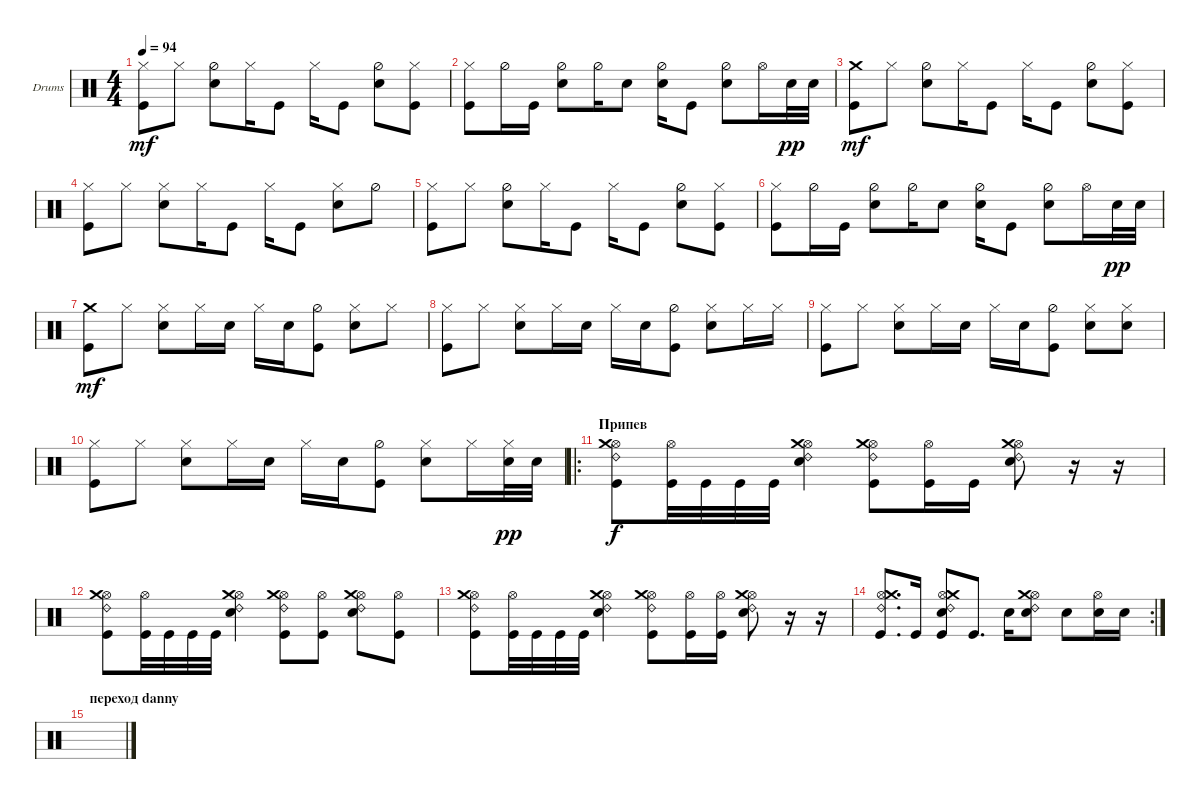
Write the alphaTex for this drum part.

\defaultSystemsLayout 4
\bracketExtendMode groupsimilarinstruments
\firstSystemTrackNameOrientation horizontal
\otherSystemsTrackNameOrientation horizontal
\track ("Drumkit" "Drums") {instrument percussion}
\staff {score}
\articulation defaults
\ts (4 4)
\tempo 94
\clef neutral
\ks c
("Kick (hit)" "Hi-Hat (closed)").8{dy mf} "Hi-Hat (closed)".8 ("Snare (hit) 2" "Hi-Hat (half)").8 "Hi-Hat (closed)".16 "Kick (hit)".8 "Hi-Hat (closed)".16 "Kick (hit)".8 ("Snare (hit) 2" "Hi-Hat (half)").8 ("Kick (hit)" "Hi-Hat (closed)").8 |
("Kick (hit)" "Hi-Hat (closed)").8 "Hi-Hat (half)".16 "Kick (hit)".16 ("Snare (hit) 2" "Hi-Hat (half)").8 "Hi-Hat (half)".16 "Snare (hit) 2".8 ("Snare (hit) 2" "Hi-Hat (half)").16 "Kick (hit)".8 ("Snare (hit) 2" "Hi-Hat (half)").8 "Hi-Hat (open)".16 "Snare (hit) 2".32{dy pp} "Snare (hit) 2".32 |
("Kick (hit)" "Crash medium (hit)").8{dy mf} "Hi-Hat (closed)".8 ("Snare (hit) 2" "Hi-Hat (half)").8 "Hi-Hat (closed)".16 "Kick (hit)".8 "Hi-Hat (closed)".16 "Kick (hit)".8 ("Snare (hit) 2" "Hi-Hat (half)").8 ("Kick (hit)" "Hi-Hat (closed)").8 |
("Kick (hit)" "Hi-Hat (closed)").8 "Hi-Hat (closed)".8 ("Snare (hit) 2" "Hi-Hat (closed)").8 "Hi-Hat (closed)".16 "Kick (hit)".8 "Hi-Hat (closed)".16 "Kick (hit)".8 ("Snare (hit) 2" "Hi-Hat (closed)").8 "Hi-Hat (half)".8 |
("Kick (hit)" "Hi-Hat (closed)").8 "Hi-Hat (closed)".8 ("Snare (hit) 2" "Hi-Hat (half)").8 "Hi-Hat (closed)".16 "Kick (hit)".8 "Hi-Hat (closed)".16 "Kick (hit)".8 ("Snare (hit) 2" "Hi-Hat (half)").8 ("Kick (hit)" "Hi-Hat (closed)").8 |
("Kick (hit)" "Hi-Hat (closed)").8 "Hi-Hat (half)".16 "Kick (hit)".16 ("Snare (hit) 2" "Hi-Hat (half)").8 "Hi-Hat (half)".16 "Snare (hit) 2".8 ("Snare (hit) 2" "Hi-Hat (half)").16 "Kick (hit)".8 ("Snare (hit) 2" "Hi-Hat (half)").8 "Hi-Hat (open)".16 "Snare (hit) 2".32{dy pp} "Snare (hit) 2".32 |
("Kick (hit)" "Crash medium (hit)").8{dy mf} "Hi-Hat (closed)".8 ("Snare (hit) 2" "Hi-Hat (closed)").8 "Hi-Hat (closed)".16 "Snare (hit) 2".16 "Hi-Hat (closed)".16 "Snare (hit) 2".16 ("Kick (hit)" "Hi-Hat (half)").8 ("Snare (hit) 2" "Hi-Hat (closed)").8 "Hi-Hat (closed)".8 |
("Kick (hit)" "Hi-Hat (closed)").8 "Hi-Hat (closed)".8 ("Snare (hit) 2" "Hi-Hat (closed)").8 "Hi-Hat (closed)".16 "Snare (hit) 2".16 "Hi-Hat (closed)".16 "Snare (hit) 2".16 ("Kick (hit)" "Hi-Hat (half)").8 ("Snare (hit) 2" "Hi-Hat (closed)").8 "Hi-Hat (closed)".16 "Hi-Hat (closed)".16 |
("Kick (hit)" "Hi-Hat (closed)").8 "Hi-Hat (closed)".8 ("Snare (hit) 2" "Hi-Hat (closed)").8 "Hi-Hat (closed)".16 "Snare (hit) 2".16 "Hi-Hat (closed)".16 "Snare (hit) 2".16 ("Kick (hit)" "Hi-Hat (half)").8 ("Snare (hit) 2" "Hi-Hat (closed)").8 ("Hi-Hat (closed)" "Snare (hit) 2").8 |
("Kick (hit)" "Hi-Hat (closed)").8 "Hi-Hat (closed)".8 ("Snare (hit) 2" "Hi-Hat (closed)").8 "Hi-Hat (closed)".16 "Snare (hit) 2".16 "Hi-Hat (closed)".16 "Snare (hit) 2".16 ("Kick (hit)" "Hi-Hat (half)").8 ("Snare (hit) 2" "Hi-Hat (closed)").8 "Hi-Hat (closed)".16 ("Hi-Hat (closed)" "Snare (hit) 2").32{dy pp} "Snare (hit) 2".32 |
\ro
\section ("" "Припев")
("Kick (hit)" "Hi-Hat (open)" "Crash medium (hit)" "Ride (bell) 2").8{dy f} ("Kick (hit)" "Hi-Hat (open)").32 "Kick (hit)".32 "Kick (hit)".32 "Kick (hit)".32 ("Snare (hit) 2" "Ride (bell) 2" "Hi-Hat (open)" "Crash medium (hit)").4 ("Kick (hit)" "Ride (bell) 2" "Hi-Hat (open)" "Crash medium (hit)").8 ("Kick (hit)" "Hi-Hat (open)").16 "Kick (hit)".16 ("Snare (hit) 2" "Ride (bell) 2" "Hi-Hat (open)" "Crash medium (hit)").8 r.16 r.16 |
("Kick (hit)" "Hi-Hat (open)" "Crash medium (hit)" "Ride (bell) 2").8 ("Kick (hit)" "Hi-Hat (open)").32 "Kick (hit)".32 "Kick (hit)".32 "Kick (hit)".32 ("Snare (hit) 2" "Ride (bell) 2" "Hi-Hat (open)" "Crash medium (hit)").4 ("Kick (hit)" "Ride (bell) 2" "Hi-Hat (open)" "Crash medium (hit)").8 ("Kick (hit)" "Hi-Hat (open)").8 ("Snare (hit) 2" "Ride (bell) 2" "Hi-Hat (open)" "Crash medium (hit)").8 ("Kick (hit)" "Hi-Hat (open)").8 |
("Kick (hit)" "Hi-Hat (open)" "Crash medium (hit)" "Ride (bell) 2").8 ("Kick (hit)" "Hi-Hat (open)").32 "Kick (hit)".32 "Kick (hit)".32 "Kick (hit)".32 ("Snare (hit) 2" "Ride (bell) 2" "Hi-Hat (open)" "Crash medium (hit)").4 ("Kick (hit)" "Ride (bell) 2" "Hi-Hat (open)" "Crash medium (hit)").8 ("Kick (hit)" "Hi-Hat (open)").16 ("Kick (hit)" "Hi-Hat (open)").16 ("Snare (hit) 2" "Ride (bell) 2" "Hi-Hat (open)" "Crash medium (hit)").8 r.16 r.16 |
\rc 2
("Kick (hit)" "Ride (bell) 2" "Hi-Hat (open)" "Crash medium (hit)").8{d} "Kick (hit)".16 ("Kick (hit)" "Ride (bell) 2" "Hi-Hat (open)" "Crash medium (hit)" "Snare (hit) 2").8 "Kick (hit)".8{d} "Snare (hit) 2".16 ("Ride (bell) 2" "Hi-Hat (open)" "Crash medium (hit)" "Snare (hit) 2").8 "Snare (hit) 2".8 ("Snare (hit) 2" "Hi-Hat (open)").16 "Snare (hit) 2".16 |
\section ("" "переход danny")
